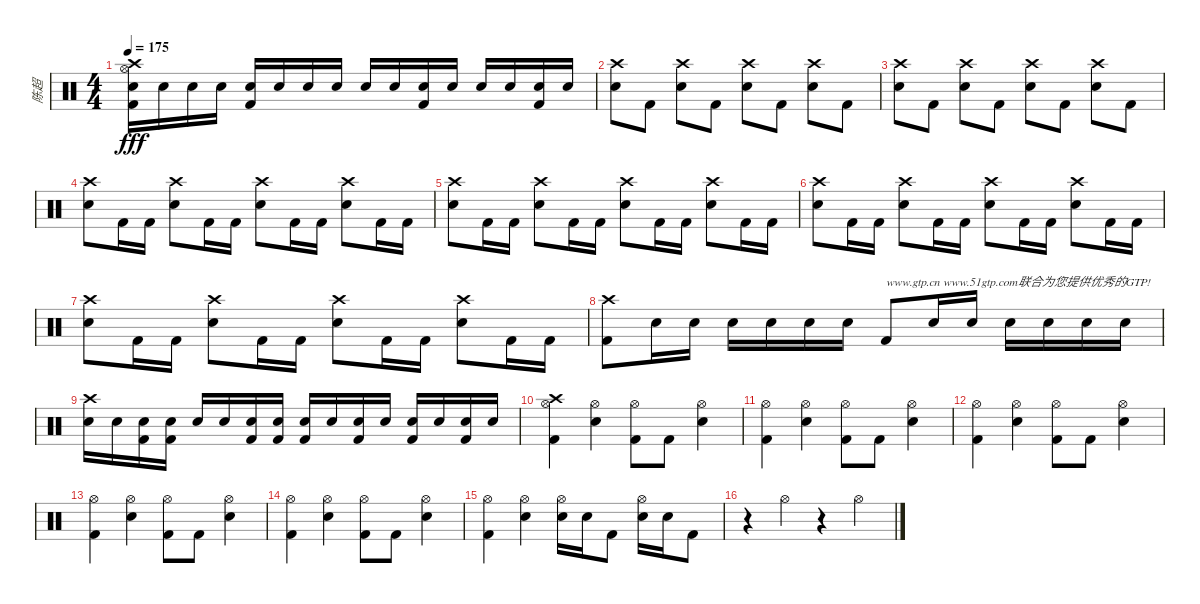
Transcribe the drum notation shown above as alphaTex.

\track ("陈超" "陈超") {instrument percussion}
\staff {score}
\articulation defaults
\ts (4 4)
\tempo 175
\clef neutral
\ks c
("Crash high (hit)" "Hi-Hat (open)" "Electric Snare (hit)" "Kick (hit) 2").16{dy fff} "Electric Snare (hit)".16 "Electric Snare (hit)".16 "Electric Snare (hit)".16 ("Snare (hit) 2" "Kick (hit) 2").16 "Snare (hit) 2".16 "Snare (hit) 2".16 "Snare (hit) 2".16 "Electric Snare (hit)".16 "Electric Snare (hit)".16 ("Snare (hit) 2" "Kick (hit) 2").16 "Snare (hit) 2".16 "Electric Snare (hit)".16 "Electric Snare (hit)".16 ("Electric Snare (hit)" "Kick (hit) 2").16 "Electric Snare (hit)".16 |
("Crash high (hit)" "Electric Snare (hit)").8 "Kick (hit) 2".8 ("Crash high (hit)" "Electric Snare (hit)").8 "Kick (hit) 2".8 ("Crash high (hit)" "Electric Snare (hit)").8 "Kick (hit) 2".8 ("Crash high (hit)" "Electric Snare (hit)").8 "Kick (hit) 2".8 |
("Crash high (hit)" "Electric Snare (hit)").8 "Kick (hit) 2".8 ("Crash high (hit)" "Electric Snare (hit)").8 "Kick (hit) 2".8 ("Crash high (hit)" "Electric Snare (hit)").8 "Kick (hit) 2".8 ("Crash high (hit)" "Electric Snare (hit)").8 "Kick (hit) 2".8 |
("Crash high (hit)" "Electric Snare (hit)").8 "Kick (hit) 2".16 "Kick (hit) 2".16 ("Crash high (hit)" "Electric Snare (hit)").8 "Kick (hit) 2".16 "Kick (hit) 2".16 ("Crash high (hit)" "Electric Snare (hit)").8 "Kick (hit) 2".16 "Kick (hit) 2".16 ("Crash high (hit)" "Electric Snare (hit)").8 "Kick (hit) 2".16 "Kick (hit) 2".16 |
("Crash high (hit)" "Electric Snare (hit)").8 "Kick (hit) 2".16 "Kick (hit) 2".16 ("Crash high (hit)" "Electric Snare (hit)").8 "Kick (hit) 2".16 "Kick (hit) 2".16 ("Crash high (hit)" "Electric Snare (hit)").8 "Kick (hit) 2".16 "Kick (hit) 2".16 ("Crash high (hit)" "Electric Snare (hit)").8 "Kick (hit) 2".16 "Kick (hit) 2".16 |
("Crash high (hit)" "Electric Snare (hit)").8 "Kick (hit) 2".16 "Kick (hit) 2".16 ("Crash high (hit)" "Electric Snare (hit)").8 "Kick (hit) 2".16 "Kick (hit) 2".16 ("Crash high (hit)" "Electric Snare (hit)").8 "Kick (hit) 2".16 "Kick (hit) 2".16 ("Crash high (hit)" "Electric Snare (hit)").8 "Kick (hit) 2".16 "Kick (hit) 2".16 |
("Crash high (hit)" "Electric Snare (hit)").8 "Kick (hit) 2".16 "Kick (hit) 2".16 ("Crash high (hit)" "Electric Snare (hit)").8 "Kick (hit) 2".16 "Kick (hit) 2".16 ("Crash high (hit)" "Electric Snare (hit)").8 "Kick (hit) 2".16 "Kick (hit) 2".16 ("Crash high (hit)" "Electric Snare (hit)").8 "Kick (hit) 2".16 "Kick (hit) 2".16 |
("Crash high (hit)" "Kick (hit) 2").8 "Electric Snare (hit)".16 "Electric Snare (hit)".16 "Electric Snare (hit)".16 "Electric Snare (hit)".16 "Electric Snare (hit)".16 "Electric Snare (hit)".16 "Kick (hit) 2".8{txt "www.gtp.cn www.51gtp.com联合为您提供优秀的GTP!"} "Electric Snare (hit)".16 "Electric Snare (hit)".16 "Electric Snare (hit)".16 "Electric Snare (hit)".16 "Electric Snare (hit)".16 "Electric Snare (hit)".16 |
("Crash high (hit)" "Electric Snare (hit)").16 "Electric Snare (hit)".16 ("Electric Snare (hit)" "Kick (hit) 2").16 ("Electric Snare (hit)" "Kick (hit) 2").16 "Electric Snare (hit)".16 "Electric Snare (hit)".16 ("Electric Snare (hit)" "Kick (hit) 2").16 ("Electric Snare (hit)" "Kick (hit) 2").16 ("Snare (hit) 2" "Kick (hit) 2").16 "Snare (hit) 2".16 ("Snare (hit) 2" "Kick (hit) 2").16 "Snare (hit) 2".16 ("Snare (hit) 2" "Kick (hit) 2").16 "Snare (hit) 2".16 ("Snare (hit) 2" "Kick (hit) 2").16 "Snare (hit) 2".16 |
("Crash high (hit)" "Hi-Hat (open)" "Kick (hit) 2").4 ("Hi-Hat (open)" "Electric Snare (hit)").4 ("Hi-Hat (open)" "Kick (hit) 2").8 "Kick (hit) 2".8 ("Hi-Hat (open)" "Electric Snare (hit)").4 |
("Hi-Hat (open)" "Kick (hit) 2").4 ("Hi-Hat (open)" "Electric Snare (hit)").4 ("Hi-Hat (open)" "Kick (hit) 2").8 "Kick (hit) 2".8 ("Hi-Hat (open)" "Electric Snare (hit)").4 |
("Hi-Hat (open)" "Kick (hit) 2").4 ("Hi-Hat (open)" "Electric Snare (hit)").4 ("Hi-Hat (open)" "Kick (hit) 2").8 "Kick (hit) 2".8 ("Hi-Hat (open)" "Electric Snare (hit)").4 |
("Hi-Hat (open)" "Kick (hit) 2").4 ("Hi-Hat (open)" "Electric Snare (hit)").4 ("Hi-Hat (open)" "Kick (hit) 2").8 "Kick (hit) 2".8 ("Hi-Hat (open)" "Electric Snare (hit)").4 |
("Hi-Hat (open)" "Kick (hit) 2").4 ("Hi-Hat (open)" "Electric Snare (hit)").4 ("Hi-Hat (open)" "Kick (hit) 2").8 "Kick (hit) 2".8 ("Hi-Hat (open)" "Electric Snare (hit)").4 |
("Hi-Hat (open)" "Kick (hit) 2").4 ("Hi-Hat (open)" "Electric Snare (hit)").4 ("Hi-Hat (open)" "Electric Snare (hit)").16 "Electric Snare (hit)".16 "Kick (hit) 2".8 ("Hi-Hat (open)" "Electric Snare (hit)").16 "Electric Snare (hit)".16 "Kick (hit) 2".8 |
r.4 "Hi-Hat (open)".4 r.4 "Hi-Hat (open)".4
